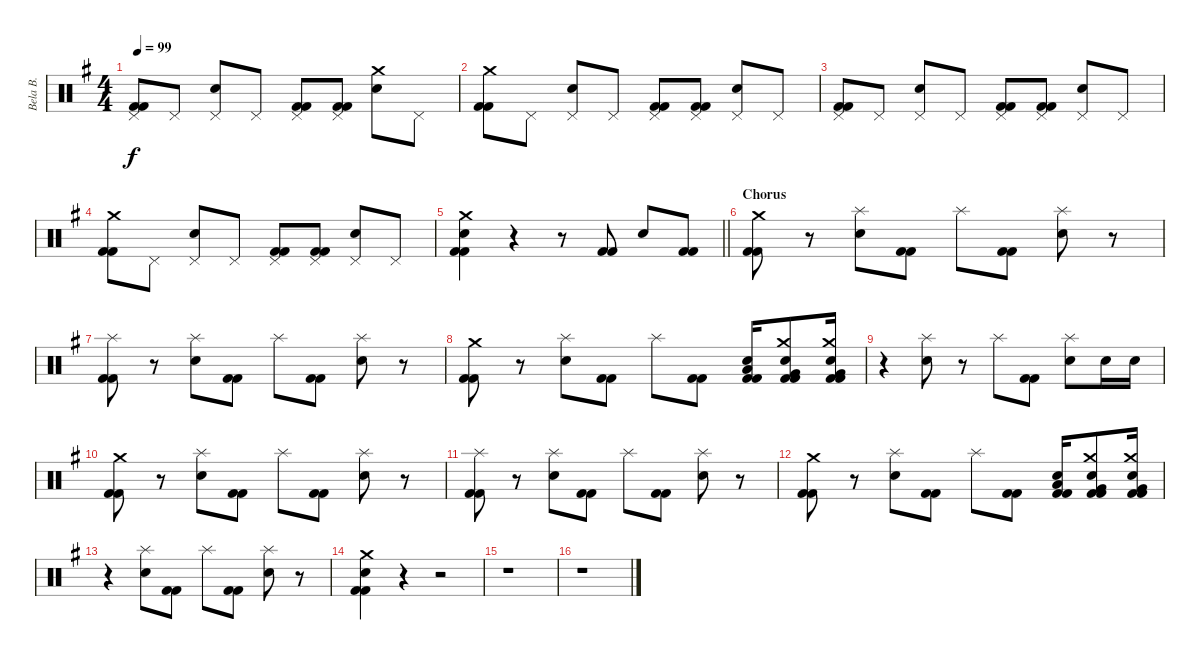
\track ("Bela B." "Bela B.") {instrument percussion}
\staff {score}
\articulation defaults
\ts (4 4)
\tempo 99
\clef neutral
\ks g
("Pedal Hi-Hat (hit)" "Kick (hit) 2" "Kick (hit) 2").8{dy f} "Pedal Hi-Hat (hit)".8 ("Pedal Hi-Hat (hit)" "Snare (hit) 2").8 "Pedal Hi-Hat (hit)".8 ("Pedal Hi-Hat (hit)" "Kick (hit) 2" "Kick (hit) 2").8 ("Pedal Hi-Hat (hit)" "Kick (hit) 2" "Kick (hit) 2").8 ("Crash medium (hit)" "Snare (hit) 2").8 "Pedal Hi-Hat (hit)".8 |
("Crash medium (hit)" "Kick (hit) 2" "Kick (hit) 2").8 "Pedal Hi-Hat (hit)".8 ("Pedal Hi-Hat (hit)" "Snare (hit) 2").8 "Pedal Hi-Hat (hit)".8 ("Pedal Hi-Hat (hit)" "Kick (hit) 2" "Kick (hit) 2").8 ("Pedal Hi-Hat (hit)" "Kick (hit) 2" "Kick (hit) 2").8 ("Pedal Hi-Hat (hit)" "Snare (hit) 2").8 "Pedal Hi-Hat (hit)".8 |
("Pedal Hi-Hat (hit)" "Kick (hit) 2" "Kick (hit) 2").8 "Pedal Hi-Hat (hit)".8 ("Pedal Hi-Hat (hit)" "Snare (hit) 2").8 "Pedal Hi-Hat (hit)".8 ("Pedal Hi-Hat (hit)" "Kick (hit) 2" "Kick (hit) 2").8 ("Pedal Hi-Hat (hit)" "Kick (hit) 2" "Kick (hit) 2").8 ("Pedal Hi-Hat (hit)" "Snare (hit) 2").8 "Pedal Hi-Hat (hit)".8 |
("Crash medium (hit)" "Kick (hit) 2" "Kick (hit) 2").8 "Pedal Hi-Hat (hit)".8 ("Pedal Hi-Hat (hit)" "Snare (hit) 2").8 "Pedal Hi-Hat (hit)".8 ("Pedal Hi-Hat (hit)" "Kick (hit) 2" "Kick (hit) 2").8 ("Pedal Hi-Hat (hit)" "Kick (hit) 2" "Kick (hit) 2").8 ("Pedal Hi-Hat (hit)" "Snare (hit) 2").8 "Pedal Hi-Hat (hit)".8 |
\barLineRight lightlight
("Crash medium (hit)" "Snare (hit) 2" "Kick (hit) 2" "Kick (hit) 2").4 r.4 r.8 ("Kick (hit) 2" "Kick (hit) 2").8 "Snare (hit) 2".8 ("Kick (hit) 2" "Kick (hit) 2").8 |
\section ("" "Chorus")
("Crash medium (hit)" "Kick (hit) 2" "Kick (hit) 2").8 r.8 ("Splash (hit)" "Snare (hit) 2").8 ("Kick (hit) 2" "Kick (hit) 2").8 "Splash (hit)".8 ("Kick (hit) 2" "Kick (hit) 2").8 ("Splash (hit)" "Snare (hit) 2").8 r.8 |
("Splash (hit)" "Kick (hit) 2" "Kick (hit) 2").8 r.8 ("Splash (hit)" "Snare (hit) 2").8 ("Kick (hit) 2" "Kick (hit) 2").8 "Splash (hit)".8 ("Kick (hit) 2" "Kick (hit) 2").8 ("Splash (hit)" "Snare (hit) 2").8 r.8 |
("Crash medium (hit)" "Kick (hit) 2" "Kick (hit) 2").8 r.8 ("Splash (hit)" "Snare (hit) 2").8 ("Kick (hit) 2" "Kick (hit) 2").8 "Splash (hit)".8 ("Kick (hit) 2" "Kick (hit) 2").8 ("Low Floor Tom (hit)" "Electric Snare (hit)" "Kick (hit) 2" "Kick (hit) 2").16 ("Crash medium (hit)" "Very Low Tom (hit)" "Electric Snare (hit)" "Kick (hit) 2" "Kick (hit) 2").8 ("Crash medium (hit)" "Very Low Tom (hit)" "Electric Snare (hit)" "Kick (hit) 2" "Kick (hit) 2").16 |
r.4 ("Splash (hit)" "Snare (hit) 2").8 r.8 "Splash (hit)".8 ("Kick (hit) 2" "Kick (hit) 2").8 ("Splash (hit)" "Snare (hit) 2").8 "Snare (hit) 2".16 "Snare (hit) 2".16 |
("Crash medium (hit)" "Kick (hit) 2" "Kick (hit) 2").8 r.8 ("Splash (hit)" "Snare (hit) 2").8 ("Kick (hit) 2" "Kick (hit) 2").8 "Splash (hit)".8 ("Kick (hit) 2" "Kick (hit) 2").8 ("Splash (hit)" "Snare (hit) 2").8 r.8 |
("Splash (hit)" "Kick (hit) 2" "Kick (hit) 2").8 r.8 ("Splash (hit)" "Snare (hit) 2").8 ("Kick (hit) 2" "Kick (hit) 2").8 "Splash (hit)".8 ("Kick (hit) 2" "Kick (hit) 2").8 ("Splash (hit)" "Snare (hit) 2").8 r.8 |
("Crash medium (hit)" "Kick (hit) 2" "Kick (hit) 2").8 r.8 ("Splash (hit)" "Snare (hit) 2").8 ("Kick (hit) 2" "Kick (hit) 2").8 "Splash (hit)".8 ("Kick (hit) 2" "Kick (hit) 2").8 ("Low Floor Tom (hit)" "Electric Snare (hit)" "Kick (hit) 2" "Kick (hit) 2").16 ("Crash medium (hit)" "Very Low Tom (hit)" "Electric Snare (hit)" "Kick (hit) 2" "Kick (hit) 2").8 ("Crash medium (hit)" "Very Low Tom (hit)" "Electric Snare (hit)" "Kick (hit) 2" "Kick (hit) 2").16 |
r.4 ("Splash (hit)" "Snare (hit) 2").8 ("Kick (hit) 2" "Kick (hit) 2").8 "Splash (hit)".8 ("Kick (hit) 2" "Kick (hit) 2").8 ("Splash (hit)" "Snare (hit) 2").8 r.8 |
("Crash medium (hit)" "Snare (hit) 2" "Kick (hit) 2" "Kick (hit) 2").4 r.4 r.2 |
r.1 |
r.1
